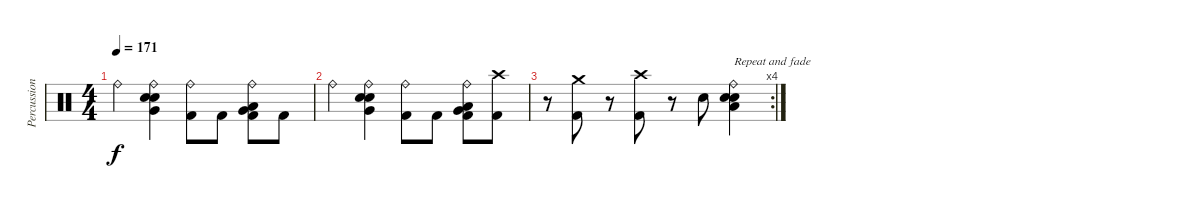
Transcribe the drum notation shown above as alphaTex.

\track ("Percussion" "Percussion") {instrument percussion}
\staff {score}
\articulation defaults
\ts (4 4)
\tempo 171
\clef neutral
\ks c "Ride (bell)".4{dy f}
("Ride (bell)" "Very Low Tom (hit)" "Metronome (bell)" "Electric Snare (hit)").4 ("Ride (bell)" "Kick (hit) 2").8 "Kick (hit) 2".8 ("Ride (bell)" "Very Low Tom (hit)" "Low Floor Tom (hit)" "Kick (hit) 2").8 "Kick (hit) 2".8 |
"Ride (bell)".4 ("Ride (bell)" "Very Low Tom (hit)" "Metronome (bell)" "Electric Snare (hit)").4 ("Ride (bell)" "Kick (hit) 2").8 "Kick (hit) 2".8 ("Ride (bell)" "Very Low Tom (hit)" "Low Floor Tom (hit)" "Kick (hit) 2").8 ("Crash high (hit)" "Kick (hit) 2").8 |
\rc 4
r.8 ("Crash medium (hit)" "Kick (hit) 2").8 r.8 ("Crash high (hit)" "Kick (hit) 2").8 r.8 "Metronome (bell)".8 ("Ride (bell)" "Low Floor Tom (hit)" "Electric Snare (hit)" "Metronome (bell)").4{txt "Repeat and fade"}
